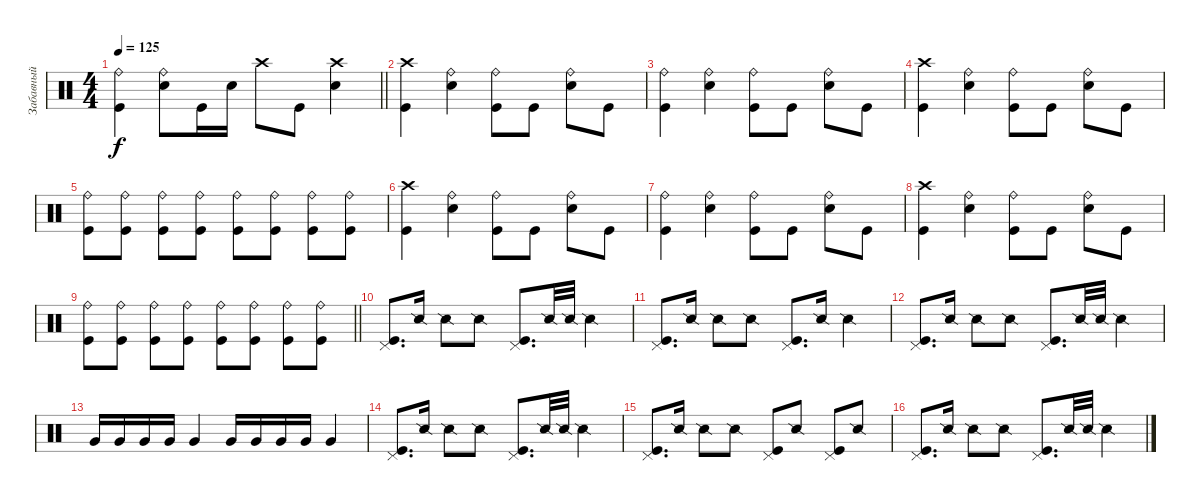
\track ("Забавный" "Забавный") {instrument percussion}
\staff {score}
\articulation defaults
\ts (4 4)
\tempo 125
\clef neutral
\barLineRight lightlight
\ks c
("Ride (bell)" "Kick (hit)").4{dy f} ("Ride (bell)" "Electric Snare (hit)").8 "Kick (hit)".16 "Electric Snare (hit)".16 "Crash high (hit)".8 "Kick (hit)".8 ("Crash high (hit)" "Electric Snare (hit)").4 |
("Crash high (hit)" "Kick (hit)").4 ("Ride (bell)" "Electric Snare (hit)").4 ("Ride (bell)" "Kick (hit)").8 "Kick (hit)".8 ("Ride (bell)" "Electric Snare (hit)").8 "Kick (hit)".8 |
("Ride (bell)" "Kick (hit)").4 ("Ride (bell)" "Electric Snare (hit)").4 ("Ride (bell)" "Kick (hit)").8 "Kick (hit)".8 ("Ride (bell)" "Electric Snare (hit)").8 "Kick (hit)".8 |
("Crash high (hit)" "Kick (hit)").4 ("Ride (bell)" "Electric Snare (hit)").4 ("Ride (bell)" "Kick (hit)").8 "Kick (hit)".8 ("Ride (bell)" "Electric Snare (hit)").8 "Kick (hit)".8 |
("Ride (bell)" "Kick (hit)").8 ("Ride (bell)" "Kick (hit)").8 ("Ride (bell)" "Kick (hit)").8 ("Ride (bell)" "Kick (hit)").8 ("Ride (bell)" "Kick (hit)").8 ("Ride (bell)" "Kick (hit)").8 ("Ride (bell)" "Kick (hit)").8 ("Ride (bell)" "Kick (hit)").8 |
("Crash high (hit)" "Kick (hit)").4 ("Ride (bell)" "Electric Snare (hit)").4 ("Ride (bell)" "Kick (hit)").8 "Kick (hit)".8 ("Ride (bell)" "Electric Snare (hit)").8 "Kick (hit)".8 |
("Ride (bell)" "Kick (hit)").4 ("Ride (bell)" "Electric Snare (hit)").4 ("Ride (bell)" "Kick (hit)").8 "Kick (hit)".8 ("Ride (bell)" "Electric Snare (hit)").8 "Kick (hit)".8 |
("Crash high (hit)" "Kick (hit)").4 ("Ride (bell)" "Electric Snare (hit)").4 ("Ride (bell)" "Kick (hit)").8 "Kick (hit)".8 ("Ride (bell)" "Electric Snare (hit)").8 "Kick (hit)".8 |
\barLineRight lightlight
("Ride (bell)" "Kick (hit)").8 ("Ride (bell)" "Kick (hit)").8 ("Ride (bell)" "Kick (hit)").8 ("Ride (bell)" "Kick (hit)").8 ("Ride (bell)" "Kick (hit)").8 ("Ride (bell)" "Kick (hit)").8 ("Ride (bell)" "Kick (hit)").8 ("Ride (bell)" "Kick (hit)").8 |
("Pedal Hi-Hat (hit)" "Kick (hit)").8{d} "Snare (side stick) 2".16 "Snare (side stick) 2".8 "Snare (side stick) 2".8 ("Pedal Hi-Hat (hit)" "Kick (hit)").8{d} "Snare (side stick) 2".32 "Snare (side stick) 2".32 "Snare (side stick) 2".4 |
("Pedal Hi-Hat (hit)" "Kick (hit)").8{d} "Snare (side stick) 2".16 "Snare (side stick) 2".8 "Snare (side stick) 2".8 ("Pedal Hi-Hat (hit)" "Kick (hit)").8{d} "Snare (side stick) 2".16 "Snare (side stick) 2".4 |
("Pedal Hi-Hat (hit)" "Kick (hit)").8{d} "Snare (side stick) 2".16 "Snare (side stick) 2".8 "Snare (side stick) 2".8 ("Pedal Hi-Hat (hit)" "Kick (hit)").8{d} "Snare (side stick) 2".32 "Snare (side stick) 2".32 "Snare (side stick) 2".4 |
"Very Low Tom (hit)".16 "Very Low Tom (hit)".16 "Very Low Tom (hit)".16 "Very Low Tom (hit)".16 "Very Low Tom (hit)".4 "Very Low Tom (hit)".16 "Very Low Tom (hit)".16 "Very Low Tom (hit)".16 "Very Low Tom (hit)".16 "Very Low Tom (hit)".4 |
("Pedal Hi-Hat (hit)" "Kick (hit)").8{d} "Snare (side stick) 2".16 "Snare (side stick) 2".8 "Snare (side stick) 2".8 ("Pedal Hi-Hat (hit)" "Kick (hit)").8{d} "Snare (side stick) 2".32 "Snare (side stick) 2".32 "Snare (side stick) 2".4 |
("Pedal Hi-Hat (hit)" "Kick (hit)").8{d} "Snare (side stick) 2".16 "Snare (side stick) 2".8 "Snare (side stick) 2".8 ("Pedal Hi-Hat (hit)" "Kick (hit)").8 "Snare (side stick) 2".8 ("Pedal Hi-Hat (hit)" "Kick (hit)").8 "Snare (side stick) 2".8 |
("Pedal Hi-Hat (hit)" "Kick (hit)").8{d} "Snare (side stick) 2".16 "Snare (side stick) 2".8 "Snare (side stick) 2".8 ("Pedal Hi-Hat (hit)" "Kick (hit)").8{d} "Snare (side stick) 2".32 "Snare (side stick) 2".32 "Snare (side stick) 2".4
